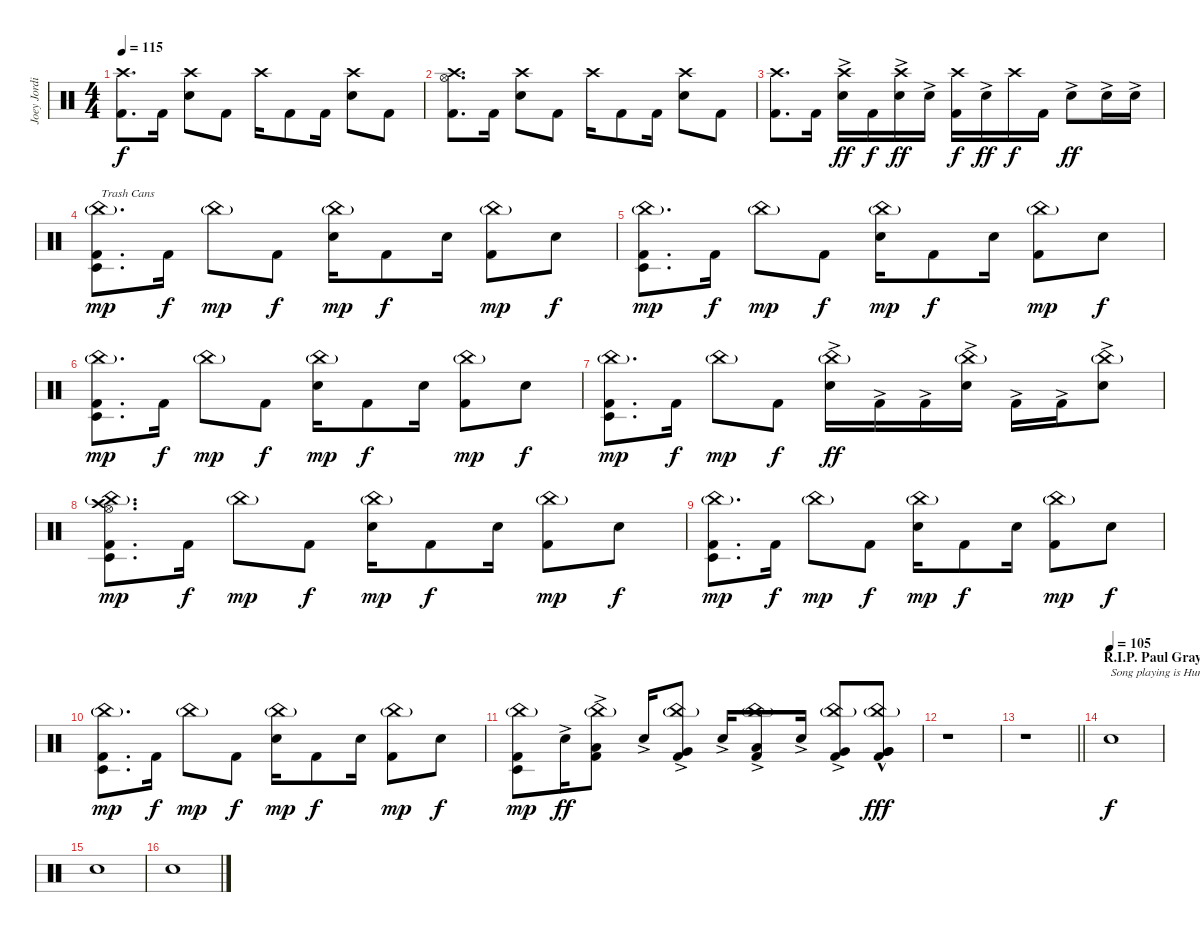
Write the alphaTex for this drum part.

\track ("Joey Jordinson (Drums)" "Joey Jordi") {instrument percussion}
\staff {score}
\articulation defaults
\ts (4 4)
\tempo 115
\clef neutral
\ks c
("Crash high (hit)" "Kick (hit) 2").8{d dy f} "Kick (hit) 2".16 ("Crash high (hit)" "Electric Snare (hit)").8 "Kick (hit) 2".8 "Crash high (hit)".16 "Kick (hit) 2".8 "Kick (hit) 2".16 ("Crash high (hit)" "Electric Snare (hit)").8 "Kick (hit) 2".8 |
("Crash high (hit)" "Hi-Hat (open)" "Kick (hit) 2").8{d} "Kick (hit) 2".16 ("Crash high (hit)" "Electric Snare (hit)").8 "Kick (hit) 2".8 "Crash high (hit)".16 "Kick (hit) 2".8 "Kick (hit) 2".16 ("Crash high (hit)" "Electric Snare (hit)").8 "Kick (hit) 2".8 |
("Crash high (hit)" "Kick (hit) 2").8{d} "Kick (hit) 2".16 ("Crash high (hit)" "Electric Snare (hit)"{ac}).16{dy ff} "Kick (hit) 2".16{dy f} ("Crash high (hit)" "Electric Snare (hit)"{ac}).16{dy ff} "Electric Snare (hit)"{ac}.16 ("Crash high (hit)" "Kick (hit) 2").16{dy f} "Electric Snare (hit)"{ac}.16{dy ff} "Crash high (hit)".16{dy f} "Kick (hit) 2".16 "Electric Snare (hit)"{ac}.8{dy ff} "Electric Snare (hit)"{ac}.16 "Electric Snare (hit)"{ac}.16 |
("Timbale low (hit)" "China (hit)"{g} "Kick (hit) 2").8{d txt "Trash Cans" dy mp} "Kick (hit) 2".16{dy f} "China (hit)"{g}.8{dy mp} "Kick (hit) 2".8{dy f} ("China (hit)"{g} "Electric Snare (hit)").16{dy mp} "Kick (hit) 2".8{dy f} "Electric Snare (hit)".16 ("China (hit)"{g} "Kick (hit) 2").8{dy mp} "Electric Snare (hit)".8{dy f} |
("Timbale low (hit)" "China (hit)"{g} "Kick (hit) 2").8{d dy mp} "Kick (hit) 2".16{dy f} "China (hit)"{g}.8{dy mp} "Kick (hit) 2".8{dy f} ("China (hit)"{g} "Electric Snare (hit)").16{dy mp} "Kick (hit) 2".8{dy f} "Electric Snare (hit)".16 ("China (hit)"{g} "Kick (hit) 2").8{dy mp} "Electric Snare (hit)".8{dy f} |
("Timbale low (hit)" "China (hit)"{g} "Kick (hit) 2").8{d dy mp} "Kick (hit) 2".16{dy f} "China (hit)"{g}.8{dy mp} "Kick (hit) 2".8{dy f} ("China (hit)"{g} "Electric Snare (hit)").16{dy mp} "Kick (hit) 2".8{dy f} "Electric Snare (hit)".16 ("China (hit)"{g} "Kick (hit) 2").8{dy mp} "Electric Snare (hit)".8{dy f} |
("Timbale low (hit)" "China (hit)"{g} "Kick (hit) 2").8{d dy mp} "Kick (hit) 2".16{dy f} "China (hit)"{g}.8{dy mp} "Kick (hit) 2".8{dy f} ("China (hit)"{g} "Electric Snare (hit)"{ac}).16{dy ff} "Kick (hit) 2"{ac}.16 "Kick (hit) 2"{ac}.16 ("China (hit)"{g} "Electric Snare (hit)"{ac}).16 "Kick (hit) 2"{ac}.16 "Kick (hit) 2"{ac}.16 ("China (hit)"{g} "Electric Snare (hit)"{ac}).8 |
("Crash high (hit)" "China (hit)"{g} "Hi-Hat (open)" "Timbale low (hit)" "Kick (hit) 2").8{d dy mp} "Kick (hit) 2".16{dy f} "China (hit)"{g}.8{dy mp} "Kick (hit) 2".8{dy f} ("China (hit)"{g} "Electric Snare (hit)").16{dy mp} "Kick (hit) 2".8{dy f} "Electric Snare (hit)".16 ("China (hit)"{g} "Kick (hit) 2").8{dy mp} "Electric Snare (hit)".8{dy f} |
("Timbale low (hit)" "China (hit)"{g} "Kick (hit) 2").8{d dy mp} "Kick (hit) 2".16{dy f} "China (hit)"{g}.8{dy mp} "Kick (hit) 2".8{dy f} ("China (hit)"{g} "Electric Snare (hit)").16{dy mp} "Kick (hit) 2".8{dy f} "Electric Snare (hit)".16 ("China (hit)"{g} "Kick (hit) 2").8{dy mp} "Electric Snare (hit)".8{dy f} |
("Timbale low (hit)" "China (hit)"{g} "Kick (hit) 2").8{d dy mp} "Kick (hit) 2".16{dy f} "China (hit)"{g}.8{dy mp} "Kick (hit) 2".8{dy f} ("China (hit)"{g} "Electric Snare (hit)").16{dy mp} "Kick (hit) 2".8{dy f} "Electric Snare (hit)".16 ("China (hit)"{g} "Kick (hit) 2").8{dy mp} "Electric Snare (hit)".8{dy f} |
("Timbale low (hit)" "China (hit)"{g} "Kick (hit) 2").8{dy mp} "Electric Snare (hit)"{ac}.16{dy ff} ("China (hit)"{g} "Low Tom (hit)"{ac} "Kick (hit) 2"{ac}).8 "Electric Snare (hit)"{ac}.16 ("China (hit)"{g} "Very Low Tom (hit)"{ac} "Kick (hit) 2"{ac}).8 "Electric Snare (hit)"{ac}.16 ("China (hit)"{g} "Low Tom (hit)"{ac} "Kick (hit) 2"{ac}).8 "Electric Snare (hit)"{ac}.16 ("China (hit)"{g} "Very Low Tom (hit)"{ac} "Kick (hit) 2"{ac}).8 ("China (hit)"{g} "Very Low Tom (hit)"{hac} "Very Low Tom (hit)"{hac} "Kick (hit) 2"{hac}).8{dy fff} |
r.1 |
\barLineRight lightlight
r.1 |
\section ("" "R.I.P. Paul Gray 1972 - 2010")
\tempo (105)
"Snare (hit)".1{txt "Song playing is Humans Vanish By Buckethead" dy f} |
"Snare (hit)".1 |
"Snare (hit)".1
